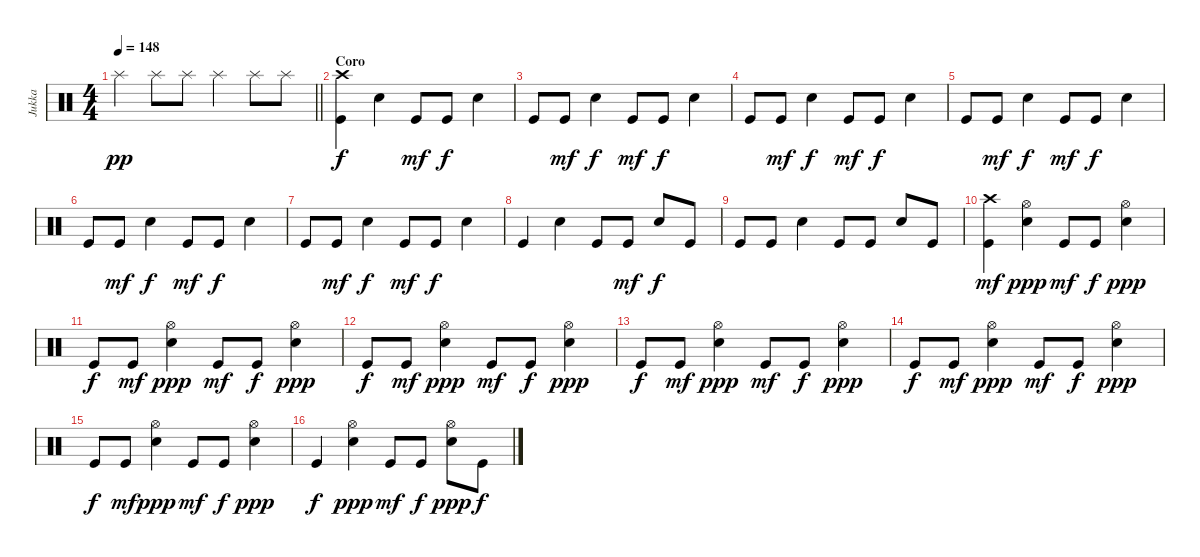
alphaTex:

\track ("Jukka" "Jukka") {instrument percussion}
\staff {score}
\articulation defaults
\ts (4 4)
\tempo 148
\clef neutral
\barLineRight lightlight
\ks c "Splash (hit)".4{dy pp} "Splash (hit)".8 "Splash (hit)".8 "Splash (hit)".4 "Splash (hit)".8 "Splash (hit)".8
|
\section ("" "Coro")
("Kick (hit)" "Crash high (hit)").4{dy f} "Snare (hit) 2".4 "Kick (hit)".8{dy mf} "Kick (hit)".8{dy f} "Snare (hit) 2".4 |
"Kick (hit)".8 "Kick (hit)".8{dy mf} "Snare (hit) 2".4{dy f} "Kick (hit)".8{dy mf} "Kick (hit)".8{dy f} "Snare (hit) 2".4 |
"Kick (hit)".8 "Kick (hit)".8{dy mf} "Snare (hit) 2".4{dy f} "Kick (hit)".8{dy mf} "Kick (hit)".8{dy f} "Snare (hit) 2".4 |
"Kick (hit)".8 "Kick (hit)".8{dy mf} "Snare (hit) 2".4{dy f} "Kick (hit)".8{dy mf} "Kick (hit)".8{dy f} "Snare (hit) 2".4 |
"Kick (hit)".8 "Kick (hit)".8{dy mf} "Snare (hit) 2".4{dy f} "Kick (hit)".8{dy mf} "Kick (hit)".8{dy f} "Snare (hit) 2".4 |
"Kick (hit)".8 "Kick (hit)".8{dy mf} "Snare (hit) 2".4{dy f} "Kick (hit)".8{dy mf} "Kick (hit)".8{dy f} "Snare (hit) 2".4 |
"Kick (hit)".4 "Snare (hit) 2".4 "Kick (hit)".8 "Kick (hit)".8{dy mf} "Snare (hit) 2".8{dy f} "Kick (hit)".8 |
"Kick (hit)".8 "Kick (hit)".8 "Snare (hit) 2".4 "Kick (hit)".8 "Kick (hit)".8 "Snare (hit) 2".8 "Kick (hit)".8 |
("Kick (hit)" "Crash high (hit)").4{dy mf} ("Snare (hit) 2" "Hi-Hat (open)").4{dy ppp} "Kick (hit)".8{dy mf} "Kick (hit)".8{dy f} ("Snare (hit) 2" "Hi-Hat (open)").4{dy ppp} |
"Kick (hit)".8{dy f} "Kick (hit)".8{dy mf} ("Snare (hit) 2" "Hi-Hat (open)").4{dy ppp} "Kick (hit)".8{dy mf} "Kick (hit)".8{dy f} ("Snare (hit) 2" "Hi-Hat (open)").4{dy ppp} |
"Kick (hit)".8{dy f} "Kick (hit)".8{dy mf} ("Snare (hit) 2" "Hi-Hat (open)").4{dy ppp} "Kick (hit)".8{dy mf} "Kick (hit)".8{dy f} ("Snare (hit) 2" "Hi-Hat (open)").4{dy ppp} |
"Kick (hit)".8{dy f} "Kick (hit)".8{dy mf} ("Snare (hit) 2" "Hi-Hat (open)").4{dy ppp} "Kick (hit)".8{dy mf} "Kick (hit)".8{dy f} ("Snare (hit) 2" "Hi-Hat (open)").4{dy ppp} |
"Kick (hit)".8{dy f} "Kick (hit)".8{dy mf} ("Snare (hit) 2" "Hi-Hat (open)").4{dy ppp} "Kick (hit)".8{dy mf} "Kick (hit)".8{dy f} ("Snare (hit) 2" "Hi-Hat (open)").4{dy ppp} |
"Kick (hit)".8{dy f} "Kick (hit)".8{dy mf} ("Snare (hit) 2" "Hi-Hat (open)").4{dy ppp} "Kick (hit)".8{dy mf} "Kick (hit)".8{dy f} ("Snare (hit) 2" "Hi-Hat (open)").4{dy ppp} |
"Kick (hit)".4{dy f} ("Snare (hit) 2" "Hi-Hat (open)").4{dy ppp} "Kick (hit)".8{dy mf} "Kick (hit)".8{dy f} ("Snare (hit) 2" "Hi-Hat (open)").8{dy ppp} "Kick (hit)".8{dy f}
